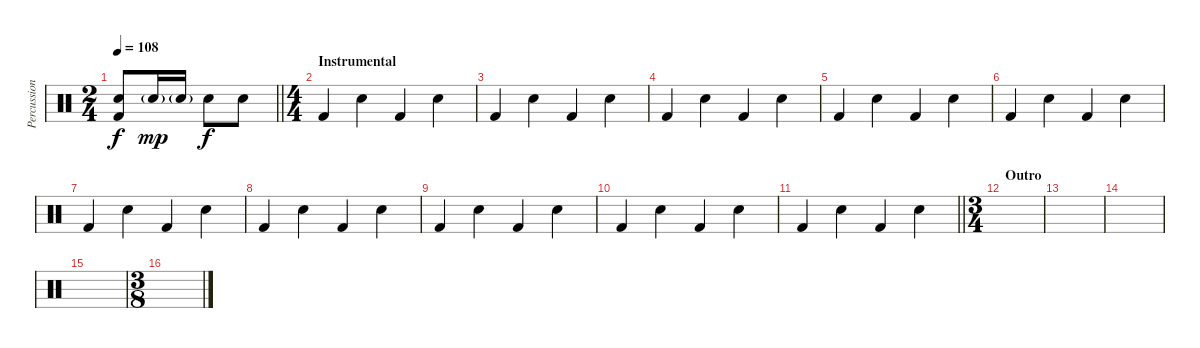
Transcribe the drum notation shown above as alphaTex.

\track ("Percussion" "Percussion") {instrument percussion}
\staff {score}
\articulation defaults
\ts (2 4)
\tempo 108
\clef neutral
\barLineRight lightlight
\ks c
("Snare (hit) 2" "Kick (hit) 2").8{dy f} "Snare (hit) 2"{g}.16{dy mp} "Snare (hit) 2"{g}.16 "Snare (hit) 2".8{dy f} "Snare (hit) 2".8 |
\ts (4 4)
\section ("" "Instrumental")
"Kick (hit) 2".4 "Snare (hit) 2".4 "Kick (hit) 2".4 "Snare (hit) 2".4 |
"Kick (hit) 2".4 "Snare (hit) 2".4 "Kick (hit) 2".4 "Snare (hit) 2".4 |
"Kick (hit) 2".4 "Snare (hit) 2".4 "Kick (hit) 2".4 "Snare (hit) 2".4 |
"Kick (hit) 2".4 "Snare (hit) 2".4 "Kick (hit) 2".4 "Snare (hit) 2".4 |
"Kick (hit) 2".4 "Snare (hit) 2".4 "Kick (hit) 2".4 "Snare (hit) 2".4 |
"Kick (hit) 2".4 "Snare (hit) 2".4 "Kick (hit) 2".4 "Snare (hit) 2".4 |
"Kick (hit) 2".4 "Snare (hit) 2".4 "Kick (hit) 2".4 "Snare (hit) 2".4 |
"Kick (hit) 2".4 "Snare (hit) 2".4 "Kick (hit) 2".4 "Snare (hit) 2".4 |
"Kick (hit) 2".4 "Snare (hit) 2".4 "Kick (hit) 2".4 "Snare (hit) 2".4 |
\barLineRight lightlight "Kick (hit) 2".4 "Snare (hit) 2".4 "Kick (hit) 2".4 "Snare (hit) 2".4
|
\ts (3 4)
\section ("" "Outro")
|
|
|
|
\ts (3 8)
